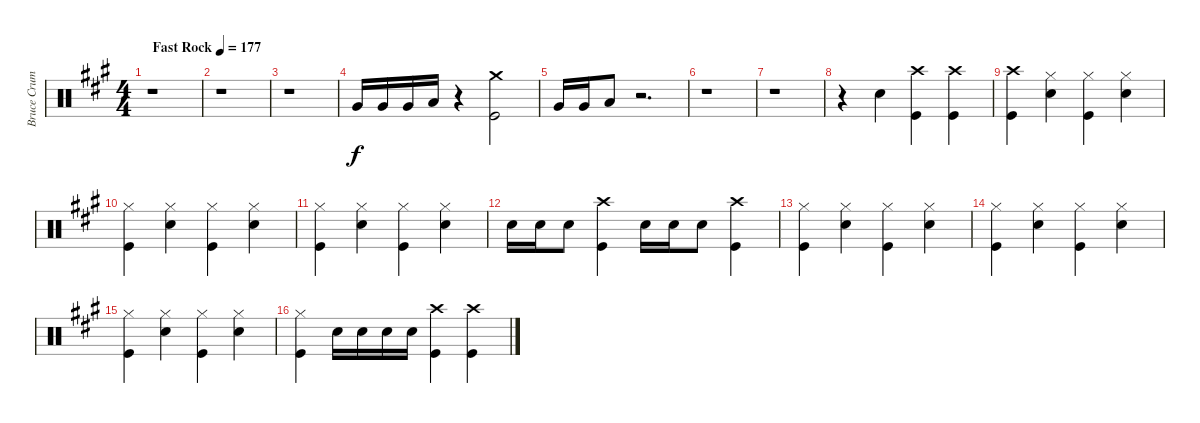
\track ("Bruce Crump Drums" "Bruce Crum") {instrument percussion}
\staff {score}
\articulation defaults
\ts (4 4)
\tempo (177 "Fast Rock")
\clef neutral
\ks a
r.1{dy f} |
r.1 |
r.1 |
"Very Low Tom (hit)".16 "Very Low Tom (hit)".16 "Very Low Tom (hit)".16 "Low Floor Tom (hit)".16 r.4 ("Crash medium (hit)" "Kick (hit)").2 |
"Very Low Tom (hit)".16 "Very Low Tom (hit)".16 "Low Floor Tom (hit)".8 r.2{d} |
r.1 |
r.1 |
r.4 "Snare (hit) 2".4 ("Crash high (hit)" "Kick (hit)").4 ("Crash high (hit)" "Kick (hit)").4 |
("Crash high (hit)" "Kick (hit)").4 ("Hi-Hat (closed)" "Snare (hit) 2").4 ("Hi-Hat (closed)" "Kick (hit)").4 ("Hi-Hat (closed)" "Snare (hit) 2").4 |
("Hi-Hat (closed)" "Kick (hit)").4 ("Hi-Hat (closed)" "Snare (hit) 2").4 ("Hi-Hat (closed)" "Kick (hit)").4 ("Hi-Hat (closed)" "Snare (hit) 2").4 |
("Hi-Hat (closed)" "Kick (hit)").4 ("Hi-Hat (closed)" "Snare (hit) 2").4 ("Hi-Hat (closed)" "Kick (hit)").4 ("Hi-Hat (closed)" "Snare (hit) 2").4 |
"Snare (hit) 2".16 "Snare (hit) 2".16 "Snare (hit) 2".8 ("Crash high (hit)" "Kick (hit)").4 "Snare (hit) 2".16 "Snare (hit) 2".16 "Snare (hit) 2".8 ("Crash high (hit)" "Kick (hit)").4 |
("Hi-Hat (closed)" "Kick (hit)").4 ("Hi-Hat (closed)" "Snare (hit) 2").4 ("Hi-Hat (closed)" "Kick (hit)").4 ("Hi-Hat (closed)" "Snare (hit) 2").4 |
("Hi-Hat (closed)" "Kick (hit)").4 ("Hi-Hat (closed)" "Snare (hit) 2").4 ("Hi-Hat (closed)" "Kick (hit)").4 ("Hi-Hat (closed)" "Snare (hit) 2").4 |
("Hi-Hat (closed)" "Kick (hit)").4 ("Hi-Hat (closed)" "Snare (hit) 2").4 ("Hi-Hat (closed)" "Kick (hit)").4 ("Hi-Hat (closed)" "Snare (hit) 2").4 |
("Hi-Hat (closed)" "Kick (hit)").4 "Snare (hit) 2".16 "Snare (hit) 2".16 "Snare (hit) 2".16 "Snare (hit) 2".16 ("Crash high (hit)" "Kick (hit)").4 ("Crash high (hit)" "Kick (hit)").4
